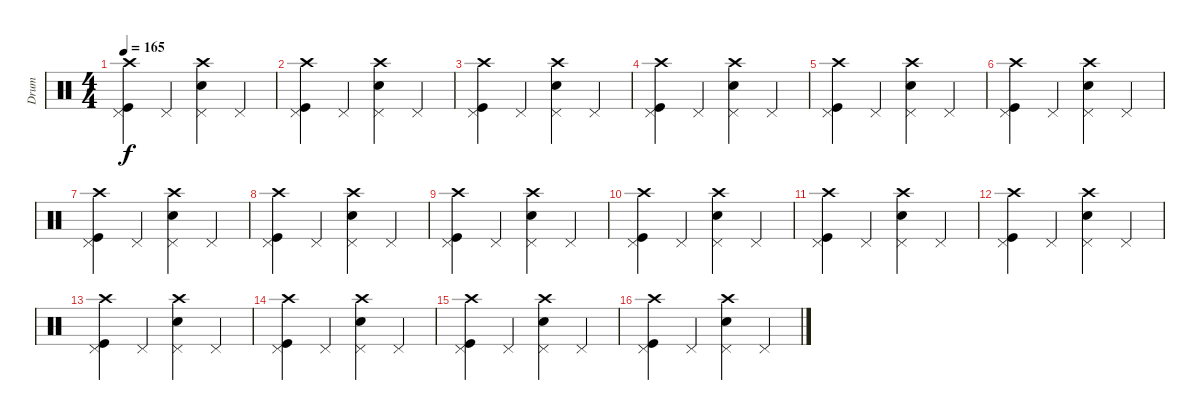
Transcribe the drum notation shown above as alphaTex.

\track ("Drum" "Drum") {instrument percussion}
\staff {score}
\articulation defaults
\ts (4 4)
\tempo 165
\clef neutral
\ks c
("Crash high (hit)" "Pedal Hi-Hat (hit)" "Kick (hit)").4{dy f} "Pedal Hi-Hat (hit)".4 ("Crash high (hit)" "Pedal Hi-Hat (hit)" "Electric Snare (hit)").4 "Pedal Hi-Hat (hit)".4 |
("Crash high (hit)" "Pedal Hi-Hat (hit)" "Kick (hit)").4 "Pedal Hi-Hat (hit)".4 ("Crash high (hit)" "Pedal Hi-Hat (hit)" "Electric Snare (hit)").4 "Pedal Hi-Hat (hit)".4 |
("Crash high (hit)" "Pedal Hi-Hat (hit)" "Kick (hit)").4 "Pedal Hi-Hat (hit)".4 ("Crash high (hit)" "Pedal Hi-Hat (hit)" "Electric Snare (hit)").4 "Pedal Hi-Hat (hit)".4 |
("Crash high (hit)" "Pedal Hi-Hat (hit)" "Kick (hit)").4 "Pedal Hi-Hat (hit)".4 ("Crash high (hit)" "Pedal Hi-Hat (hit)" "Electric Snare (hit)").4 "Pedal Hi-Hat (hit)".4 |
("Crash high (hit)" "Pedal Hi-Hat (hit)" "Kick (hit)").4 "Pedal Hi-Hat (hit)".4 ("Crash high (hit)" "Pedal Hi-Hat (hit)" "Electric Snare (hit)").4 "Pedal Hi-Hat (hit)".4 |
("Crash high (hit)" "Pedal Hi-Hat (hit)" "Kick (hit)").4 "Pedal Hi-Hat (hit)".4 ("Crash high (hit)" "Pedal Hi-Hat (hit)" "Electric Snare (hit)").4 "Pedal Hi-Hat (hit)".4 |
("Crash high (hit)" "Pedal Hi-Hat (hit)" "Kick (hit)").4 "Pedal Hi-Hat (hit)".4 ("Crash high (hit)" "Pedal Hi-Hat (hit)" "Electric Snare (hit)").4 "Pedal Hi-Hat (hit)".4 |
("Crash high (hit)" "Pedal Hi-Hat (hit)" "Kick (hit)").4 "Pedal Hi-Hat (hit)".4 ("Crash high (hit)" "Pedal Hi-Hat (hit)" "Electric Snare (hit)").4 "Pedal Hi-Hat (hit)".4 |
("Crash high (hit)" "Pedal Hi-Hat (hit)" "Kick (hit)").4 "Pedal Hi-Hat (hit)".4 ("Crash high (hit)" "Pedal Hi-Hat (hit)" "Electric Snare (hit)").4 "Pedal Hi-Hat (hit)".4 |
("Crash high (hit)" "Pedal Hi-Hat (hit)" "Kick (hit)").4 "Pedal Hi-Hat (hit)".4 ("Crash high (hit)" "Pedal Hi-Hat (hit)" "Electric Snare (hit)").4 "Pedal Hi-Hat (hit)".4 |
("Crash high (hit)" "Pedal Hi-Hat (hit)" "Kick (hit)").4 "Pedal Hi-Hat (hit)".4 ("Crash high (hit)" "Pedal Hi-Hat (hit)" "Electric Snare (hit)").4 "Pedal Hi-Hat (hit)".4 |
("Crash high (hit)" "Pedal Hi-Hat (hit)" "Kick (hit)").4 "Pedal Hi-Hat (hit)".4 ("Crash high (hit)" "Pedal Hi-Hat (hit)" "Electric Snare (hit)").4 "Pedal Hi-Hat (hit)".4 |
("Crash high (hit)" "Pedal Hi-Hat (hit)" "Kick (hit)").4 "Pedal Hi-Hat (hit)".4 ("Crash high (hit)" "Pedal Hi-Hat (hit)" "Electric Snare (hit)").4 "Pedal Hi-Hat (hit)".4 |
("Crash high (hit)" "Pedal Hi-Hat (hit)" "Kick (hit)").4 "Pedal Hi-Hat (hit)".4 ("Crash high (hit)" "Pedal Hi-Hat (hit)" "Electric Snare (hit)").4 "Pedal Hi-Hat (hit)".4 |
("Crash high (hit)" "Pedal Hi-Hat (hit)" "Kick (hit)").4 "Pedal Hi-Hat (hit)".4 ("Crash high (hit)" "Pedal Hi-Hat (hit)" "Electric Snare (hit)").4 "Pedal Hi-Hat (hit)".4 |
("Crash high (hit)" "Pedal Hi-Hat (hit)" "Kick (hit)").4 "Pedal Hi-Hat (hit)".4 ("Crash high (hit)" "Pedal Hi-Hat (hit)" "Electric Snare (hit)").4 "Pedal Hi-Hat (hit)".4
